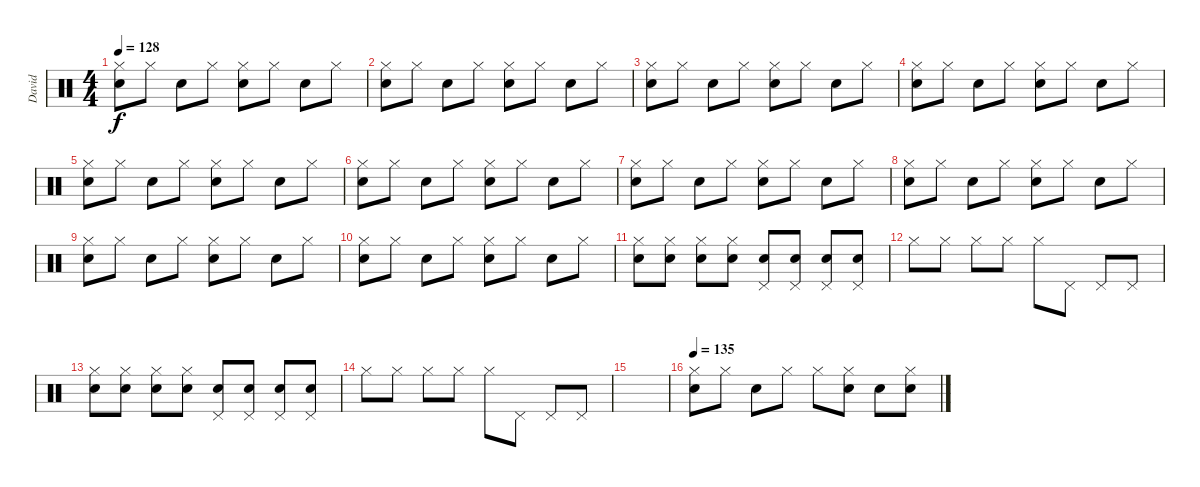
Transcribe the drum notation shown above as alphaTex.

\track ("David" "David") {instrument percussion}
\staff {score}
\articulation defaults
\ts (4 4)
\tempo 128
\clef neutral
\ks c
("Hi-Hat (closed)" "Electric Snare (hit)").8{dy f} "Hi-Hat (closed)".8 "Snare (hit) 2".8 "Hi-Hat (closed)".8 ("Hi-Hat (closed)" "Electric Snare (hit)").8 "Hi-Hat (closed)".8 "Snare (hit) 2".8 "Hi-Hat (closed)".8 |
("Hi-Hat (closed)" "Electric Snare (hit)").8 "Hi-Hat (closed)".8 "Snare (hit) 2".8 "Hi-Hat (closed)".8 ("Hi-Hat (closed)" "Electric Snare (hit)").8 "Hi-Hat (closed)".8 "Snare (hit) 2".8 "Hi-Hat (closed)".8 |
("Hi-Hat (closed)" "Electric Snare (hit)").8 "Hi-Hat (closed)".8 "Snare (hit) 2".8 "Hi-Hat (closed)".8 ("Hi-Hat (closed)" "Electric Snare (hit)").8 "Hi-Hat (closed)".8 "Snare (hit) 2".8 "Hi-Hat (closed)".8 |
("Hi-Hat (closed)" "Electric Snare (hit)").8 "Hi-Hat (closed)".8 "Snare (hit) 2".8 "Hi-Hat (closed)".8 ("Hi-Hat (closed)" "Electric Snare (hit)").8 "Hi-Hat (closed)".8 "Snare (hit) 2".8 "Hi-Hat (closed)".8 |
("Hi-Hat (closed)" "Electric Snare (hit)").8 "Hi-Hat (closed)".8 "Snare (hit) 2".8 "Hi-Hat (closed)".8 ("Hi-Hat (closed)" "Electric Snare (hit)").8 "Hi-Hat (closed)".8 "Snare (hit) 2".8 "Hi-Hat (closed)".8 |
("Hi-Hat (closed)" "Electric Snare (hit)").8 "Hi-Hat (closed)".8 "Snare (hit) 2".8 "Hi-Hat (closed)".8 ("Hi-Hat (closed)" "Electric Snare (hit)").8 "Hi-Hat (closed)".8 "Snare (hit) 2".8 "Hi-Hat (closed)".8 |
("Hi-Hat (closed)" "Electric Snare (hit)").8 "Hi-Hat (closed)".8 "Snare (hit) 2".8 "Hi-Hat (closed)".8 ("Hi-Hat (closed)" "Electric Snare (hit)").8 "Hi-Hat (closed)".8 "Snare (hit) 2".8 "Hi-Hat (closed)".8 |
("Hi-Hat (closed)" "Electric Snare (hit)").8 "Hi-Hat (closed)".8 "Snare (hit) 2".8 "Hi-Hat (closed)".8 ("Hi-Hat (closed)" "Electric Snare (hit)").8 "Hi-Hat (closed)".8 "Snare (hit) 2".8 "Hi-Hat (closed)".8 |
("Hi-Hat (closed)" "Electric Snare (hit)").8 "Hi-Hat (closed)".8 "Snare (hit) 2".8 "Hi-Hat (closed)".8 ("Hi-Hat (closed)" "Electric Snare (hit)").8 "Hi-Hat (closed)".8 "Snare (hit) 2".8 "Hi-Hat (closed)".8 |
("Hi-Hat (closed)" "Electric Snare (hit)").8 "Hi-Hat (closed)".8 "Snare (hit) 2".8 "Hi-Hat (closed)".8 ("Hi-Hat (closed)" "Electric Snare (hit)").8 "Hi-Hat (closed)".8 "Snare (hit) 2".8 "Hi-Hat (closed)".8 |
("Hi-Hat (closed)" "Snare (hit) 2").8 ("Hi-Hat (closed)" "Snare (hit) 2").8 ("Hi-Hat (closed)" "Snare (hit) 2").8 ("Hi-Hat (closed)" "Snare (hit) 2").8 ("Pedal Hi-Hat (hit)" "Snare (hit) 2").8 ("Pedal Hi-Hat (hit)" "Snare (hit) 2").8 ("Pedal Hi-Hat (hit)" "Snare (hit) 2").8 ("Pedal Hi-Hat (hit)" "Snare (hit) 2").8 |
"Hi-Hat (closed)".8 "Hi-Hat (closed)".8 "Hi-Hat (closed)".8 "Hi-Hat (closed)".8 "Hi-Hat (closed)".8 "Pedal Hi-Hat (hit)".8 "Pedal Hi-Hat (hit)".8 "Pedal Hi-Hat (hit)".8 |
("Hi-Hat (closed)" "Electric Snare (hit)").8 ("Hi-Hat (closed)" "Electric Snare (hit)").8 ("Hi-Hat (closed)" "Electric Snare (hit)").8 ("Hi-Hat (closed)" "Electric Snare (hit)").8 ("Pedal Hi-Hat (hit)" "Electric Snare (hit)").8 ("Pedal Hi-Hat (hit)" "Electric Snare (hit)").8 ("Pedal Hi-Hat (hit)" "Electric Snare (hit)").8 ("Pedal Hi-Hat (hit)" "Electric Snare (hit)").8 |
"Hi-Hat (closed)".8 "Hi-Hat (closed)".8 "Hi-Hat (closed)".8 "Hi-Hat (closed)".8 "Hi-Hat (closed)".8 "Pedal Hi-Hat (hit)".8 "Pedal Hi-Hat (hit)".8 "Pedal Hi-Hat (hit)".8 |
|
\tempo 135
("Hi-Hat (closed)" "Electric Snare (hit)").8 "Hi-Hat (closed)".8 "Snare (hit) 2".8 "Hi-Hat (closed)".8 "Hi-Hat (closed)".8 ("Hi-Hat (closed)" "Electric Snare (hit)").8 "Snare (hit) 2".8 ("Hi-Hat (closed)" "Electric Snare (hit)").8
